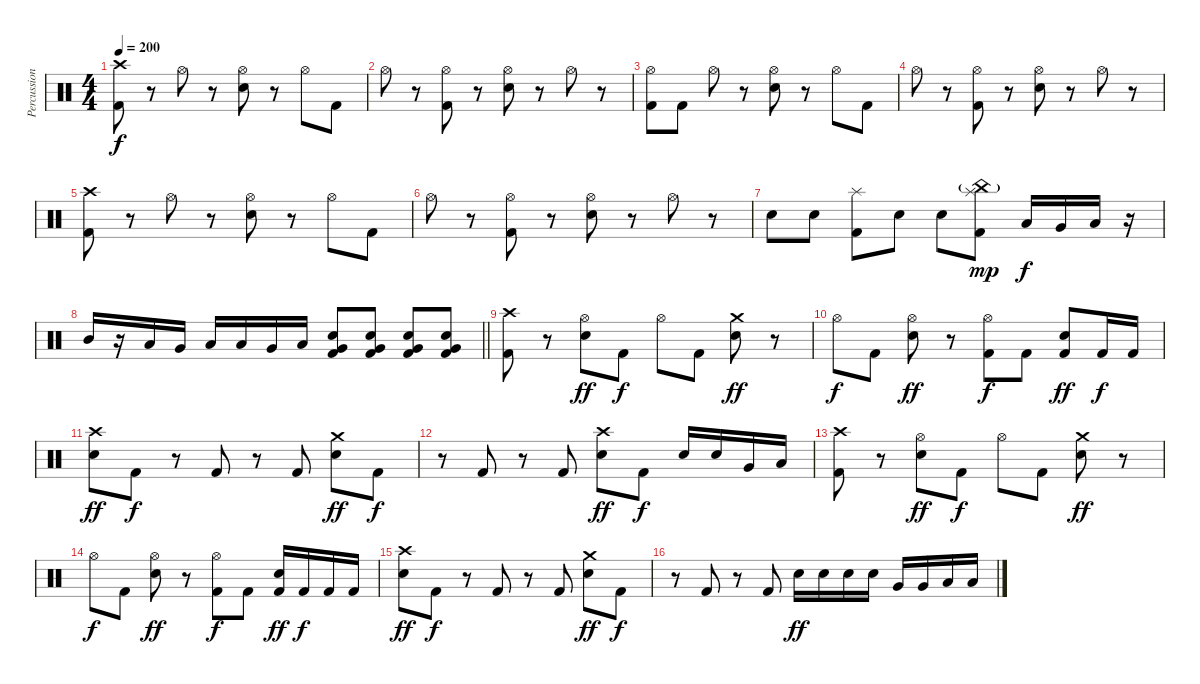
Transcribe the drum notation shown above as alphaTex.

\track ("Percussion" "Percussion") {instrument percussion}
\staff {score}
\articulation defaults
\ts (4 4)
\section ("" "")
\tempo 200
\clef neutral
\ks c
("Crash high (hit)" "Kick (hit) 2").8{dy f} r.8 "Hi-Hat (open)".8 r.8 ("Hi-Hat (open)" "Electric Snare (hit)").8 r.8 "Hi-Hat (open)".8 "Kick (hit) 2".8 |
"Hi-Hat (open)".8 r.8 ("Hi-Hat (open)" "Kick (hit) 2").8 r.8 ("Hi-Hat (open)" "Electric Snare (hit)").8 r.8 "Hi-Hat (open)".8 r.8 |
("Hi-Hat (open)" "Kick (hit) 2").8 "Kick (hit) 2".8 "Hi-Hat (open)".8 r.8 ("Hi-Hat (open)" "Electric Snare (hit)").8 r.8 "Hi-Hat (open)".8 "Kick (hit) 2".8 |
"Hi-Hat (open)".8 r.8 ("Hi-Hat (open)" "Kick (hit) 2").8 r.8 ("Hi-Hat (open)" "Electric Snare (hit)").8 r.8 "Hi-Hat (open)".8 r.8 |
("Crash high (hit)" "Kick (hit) 2").8 r.8 "Hi-Hat (open)".8 r.8 ("Hi-Hat (open)" "Electric Snare (hit)").8 r.8 "Hi-Hat (open)".8 "Kick (hit) 2".8 |
"Hi-Hat (open)".8 r.8 ("Hi-Hat (open)" "Kick (hit) 2").8 r.8 ("Hi-Hat (open)" "Electric Snare (hit)").8 r.8 "Hi-Hat (open)".8 r.8 |
"Electric Snare (hit)".8 "Electric Snare (hit)".8 ("Splash (hit)" "Kick (hit) 2").8 "Electric Snare (hit)".8 "Electric Snare (hit)".8 ("Splash (hit)" "China (hit)"{g} "Kick (hit) 2").8{dy mp} "Low Tom (hit)".16{dy f} "Very Low Tom (hit)".16 "Low Floor Tom (hit)".16 r.16 |
\barLineRight lightlight "Mid Tom (hit)".16
r.16 "Low Tom (hit)".16 "Very Low Tom (hit)".16 "Low Tom (hit)".16 "Low Tom (hit)".16 "Very Low Tom (hit)".16 "Low Floor Tom (hit)".16 ("Very Low Tom (hit)" "Electric Snare (hit)" "Kick (hit) 2").8 ("Very Low Tom (hit)" "Electric Snare (hit)" "Kick (hit) 2").8 ("Very Low Tom (hit)" "Electric Snare (hit)" "Kick (hit) 2").8 ("Very Low Tom (hit)" "Electric Snare (hit)" "Kick (hit) 2").8 |
\section ("" "")
("Crash high (hit)" "Kick (hit) 2").8 r.8 ("Hi-Hat (open)" "Electric Snare (hit)").8{dy ff} "Kick (hit) 2".8{dy f} "Hi-Hat (open)".8 "Kick (hit) 2".8 ("Crash medium (hit)" "Electric Snare (hit)").8{dy ff} r.8 |
"Hi-Hat (open)".8{dy f} "Kick (hit) 2".8 ("Hi-Hat (open)" "Electric Snare (hit)").8{dy ff} r.8 ("Hi-Hat (open)" "Kick (hit) 2").8{dy f} "Kick (hit) 2".8 ("Electric Snare (hit)" "Kick (hit) 2").8{dy ff} "Kick (hit) 2".16{dy f} "Kick (hit) 2".16 |
("Crash high (hit)" "Electric Snare (hit)").8{dy ff} "Kick (hit) 2".8{dy f} r.8 "Kick (hit) 2".8 r.8 "Kick (hit) 2".8 ("Crash medium (hit)" "Electric Snare (hit)").8{dy ff} "Kick (hit) 2".8{dy f} |
r.8 "Kick (hit) 2".8 r.8 "Kick (hit) 2".8 ("Crash high (hit)" "Electric Snare (hit)").8{dy ff} "Kick (hit) 2".8{dy f} "Electric Snare (hit)".16 "Electric Snare (hit)".16 "Very Low Tom (hit)".16 "Low Tom (hit)".16 |
("Crash high (hit)" "Kick (hit) 2").8 r.8 ("Hi-Hat (open)" "Electric Snare (hit)").8{dy ff} "Kick (hit) 2".8{dy f} "Hi-Hat (open)".8 "Kick (hit) 2".8 ("Crash medium (hit)" "Electric Snare (hit)").8{dy ff} r.8 |
"Hi-Hat (open)".8{dy f} "Kick (hit) 2".8 ("Hi-Hat (open)" "Electric Snare (hit)").8{dy ff} r.8 ("Hi-Hat (open)" "Kick (hit) 2").8{dy f} "Kick (hit) 2".8 ("Electric Snare (hit)" "Kick (hit) 2").16{dy ff} "Kick (hit) 2".16{dy f} "Kick (hit) 2".16 "Kick (hit) 2".16 |
("Crash high (hit)" "Electric Snare (hit)").8{dy ff} "Kick (hit) 2".8{dy f} r.8 "Kick (hit) 2".8 r.8 "Kick (hit) 2".8 ("Crash medium (hit)" "Electric Snare (hit)").8{dy ff} "Kick (hit) 2".8{dy f} |
r.8 "Kick (hit) 2".8 r.8 "Kick (hit) 2".8 "Electric Snare (hit)".16{dy ff} "Electric Snare (hit)".16 "Electric Snare (hit)".16 "Electric Snare (hit)".16 "Very Low Tom (hit)".16 "Very Low Tom (hit)".16 "Low Tom (hit)".16 "Low Tom (hit)".16
